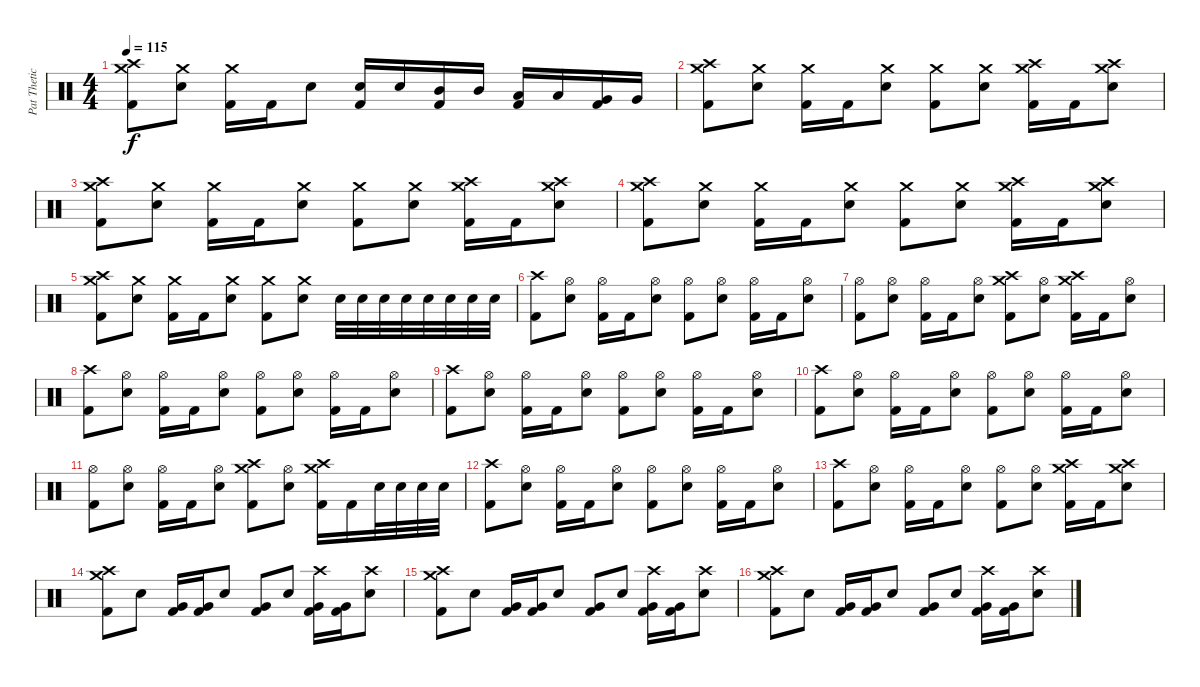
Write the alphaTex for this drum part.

\track ("Pat Thetic" "Pat Thetic") {instrument percussion}
\staff {score}
\articulation defaults
\ts (4 4)
\tempo 115
\clef neutral
\ks c
("Crash high (hit)" "Crash medium (hit)" "Kick (hit) 2").8{dy f} ("Crash medium (hit)" "Electric Snare (hit)").8 ("Crash medium (hit)" "Kick (hit) 2").16 "Kick (hit) 2".16 "Electric Snare (hit)".8 ("Electric Snare (hit)" "Kick (hit) 2").16 "Electric Snare (hit)".16 ("Mid Tom (hit)" "Kick (hit) 2").16 "Mid Tom (hit)".16 ("Low Tom (hit)" "Kick (hit) 2").16 "Low Tom (hit)".16 ("Very Low Tom (hit)" "Kick (hit) 2").16 "Very Low Tom (hit)".16 |
("Crash high (hit)" "Crash medium (hit)" "Kick (hit) 2").8 ("Crash medium (hit)" "Electric Snare (hit)").8 ("Crash medium (hit)" "Kick (hit) 2").16 "Kick (hit) 2".16 ("Crash medium (hit)" "Electric Snare (hit)").8 ("Crash medium (hit)" "Kick (hit) 2").8 ("Crash medium (hit)" "Electric Snare (hit)").8 ("Crash high (hit)" "Crash medium (hit)" "Kick (hit) 2").16 "Kick (hit) 2".16 ("Crash high (hit)" "Crash medium (hit)" "Electric Snare (hit)").8 |
("Crash high (hit)" "Crash medium (hit)" "Kick (hit) 2").8 ("Crash medium (hit)" "Electric Snare (hit)").8 ("Crash medium (hit)" "Kick (hit) 2").16 "Kick (hit) 2".16 ("Crash medium (hit)" "Electric Snare (hit)").8 ("Crash medium (hit)" "Kick (hit) 2").8 ("Crash medium (hit)" "Electric Snare (hit)").8 ("Crash high (hit)" "Crash medium (hit)" "Kick (hit) 2").16 "Kick (hit) 2".16 ("Crash high (hit)" "Crash medium (hit)" "Electric Snare (hit)").8 |
("Crash high (hit)" "Crash medium (hit)" "Kick (hit) 2").8 ("Crash medium (hit)" "Electric Snare (hit)").8 ("Crash medium (hit)" "Kick (hit) 2").16 "Kick (hit) 2".16 ("Crash medium (hit)" "Electric Snare (hit)").8 ("Crash medium (hit)" "Kick (hit) 2").8 ("Crash medium (hit)" "Electric Snare (hit)").8 ("Crash high (hit)" "Crash medium (hit)" "Kick (hit) 2").16 "Kick (hit) 2".16 ("Crash high (hit)" "Crash medium (hit)" "Electric Snare (hit)").8 |
("Crash high (hit)" "Crash medium (hit)" "Kick (hit) 2").8 ("Crash medium (hit)" "Electric Snare (hit)").8 ("Crash medium (hit)" "Kick (hit) 2").16 "Kick (hit) 2".16 ("Crash medium (hit)" "Electric Snare (hit)").8 ("Crash medium (hit)" "Kick (hit) 2").8 ("Crash medium (hit)" "Electric Snare (hit)").8 "Electric Snare (hit)".32 "Electric Snare (hit)".32 "Electric Snare (hit)".32 "Electric Snare (hit)".32 "Electric Snare (hit)".32 "Electric Snare (hit)".32 "Electric Snare (hit)".32 "Electric Snare (hit)".32 |
("Crash high (hit)" "Kick (hit) 2").8 ("Hi-Hat (open)" "Electric Snare (hit)").8 ("Hi-Hat (open)" "Kick (hit) 2").16 "Kick (hit) 2".16 ("Hi-Hat (open)" "Electric Snare (hit)").8 ("Hi-Hat (open)" "Kick (hit) 2").8 ("Hi-Hat (open)" "Electric Snare (hit)").8 ("Hi-Hat (open)" "Kick (hit) 2").16 "Kick (hit) 2".16 ("Hi-Hat (open)" "Electric Snare (hit)").8 |
("Hi-Hat (open)" "Kick (hit) 2").8 ("Hi-Hat (open)" "Electric Snare (hit)").8 ("Hi-Hat (open)" "Kick (hit) 2").16 "Kick (hit) 2".16 ("Hi-Hat (open)" "Electric Snare (hit)").8 ("Crash high (hit)" "Crash medium (hit)" "Kick (hit) 2").8 ("Hi-Hat (open)" "Electric Snare (hit)").8 ("Crash high (hit)" "Crash medium (hit)" "Kick (hit) 2").16 "Kick (hit) 2".16 ("Hi-Hat (open)" "Electric Snare (hit)").8 |
("Crash high (hit)" "Kick (hit) 2").8 ("Hi-Hat (open)" "Electric Snare (hit)").8 ("Hi-Hat (open)" "Kick (hit) 2").16 "Kick (hit) 2".16 ("Hi-Hat (open)" "Electric Snare (hit)").8 ("Hi-Hat (open)" "Kick (hit) 2").8 ("Hi-Hat (open)" "Electric Snare (hit)").8 ("Hi-Hat (open)" "Kick (hit) 2").16 "Kick (hit) 2".16 ("Hi-Hat (open)" "Electric Snare (hit)").8 |
("Crash high (hit)" "Kick (hit) 2").8 ("Hi-Hat (open)" "Electric Snare (hit)").8 ("Hi-Hat (open)" "Kick (hit) 2").16 "Kick (hit) 2".16 ("Hi-Hat (open)" "Electric Snare (hit)").8 ("Hi-Hat (open)" "Kick (hit) 2").8 ("Hi-Hat (open)" "Electric Snare (hit)").8 ("Hi-Hat (open)" "Kick (hit) 2").16 "Kick (hit) 2".16 ("Hi-Hat (open)" "Electric Snare (hit)").8 |
("Crash high (hit)" "Kick (hit) 2").8 ("Hi-Hat (open)" "Electric Snare (hit)").8 ("Hi-Hat (open)" "Kick (hit) 2").16 "Kick (hit) 2".16 ("Hi-Hat (open)" "Electric Snare (hit)").8 ("Hi-Hat (open)" "Kick (hit) 2").8 ("Hi-Hat (open)" "Electric Snare (hit)").8 ("Hi-Hat (open)" "Kick (hit) 2").16 "Kick (hit) 2".16 ("Hi-Hat (open)" "Electric Snare (hit)").8 |
("Hi-Hat (open)" "Kick (hit) 2").8 ("Hi-Hat (open)" "Electric Snare (hit)").8 ("Hi-Hat (open)" "Kick (hit) 2").16 "Kick (hit) 2".16 ("Hi-Hat (open)" "Electric Snare (hit)").8 ("Crash high (hit)" "Crash medium (hit)" "Kick (hit) 2").8 ("Hi-Hat (open)" "Electric Snare (hit)").8 ("Crash high (hit)" "Crash medium (hit)" "Kick (hit) 2").16 "Kick (hit) 2".16 "Electric Snare (hit)".32 "Electric Snare (hit)".32 "Electric Snare (hit)".32 "Electric Snare (hit)".32 |
("Crash high (hit)" "Kick (hit) 2").8 ("Hi-Hat (open)" "Electric Snare (hit)").8 ("Hi-Hat (open)" "Kick (hit) 2").16 "Kick (hit) 2".16 ("Hi-Hat (open)" "Electric Snare (hit)").8 ("Hi-Hat (open)" "Kick (hit) 2").8 ("Hi-Hat (open)" "Electric Snare (hit)").8 ("Hi-Hat (open)" "Kick (hit) 2").16 "Kick (hit) 2".16 ("Hi-Hat (open)" "Electric Snare (hit)").8 |
("Crash high (hit)" "Kick (hit) 2").8 ("Hi-Hat (open)" "Electric Snare (hit)").8 ("Hi-Hat (open)" "Kick (hit) 2").16 "Kick (hit) 2".16 ("Hi-Hat (open)" "Electric Snare (hit)").8 ("Hi-Hat (open)" "Kick (hit) 2").8 ("Hi-Hat (open)" "Electric Snare (hit)").8 ("Crash high (hit)" "Crash medium (hit)" "Kick (hit) 2").16 "Kick (hit) 2".16 ("Crash high (hit)" "Crash medium (hit)" "Electric Snare (hit)").8 |
("Crash high (hit)" "Crash medium (hit)" "Kick (hit) 2").8 "Electric Snare (hit)".8 ("Very Low Tom (hit)" "Kick (hit) 2").16 ("Very Low Tom (hit)" "Kick (hit) 2").16 "Electric Snare (hit)".8 ("Very Low Tom (hit)" "Kick (hit) 2").8 "Electric Snare (hit)".8 ("Crash high (hit)" "Very Low Tom (hit)" "Kick (hit) 2").16 ("Very Low Tom (hit)" "Kick (hit) 2").16 ("Crash high (hit)" "Electric Snare (hit)").8 |
("Crash high (hit)" "Crash medium (hit)" "Kick (hit) 2").8 "Electric Snare (hit)".8 ("Very Low Tom (hit)" "Kick (hit) 2").16 ("Very Low Tom (hit)" "Kick (hit) 2").16 "Electric Snare (hit)".8 ("Very Low Tom (hit)" "Kick (hit) 2").8 "Electric Snare (hit)".8 ("Crash high (hit)" "Very Low Tom (hit)" "Kick (hit) 2").16 ("Very Low Tom (hit)" "Kick (hit) 2").16 ("Crash high (hit)" "Electric Snare (hit)").8 |
("Crash high (hit)" "Crash medium (hit)" "Kick (hit) 2").8 "Electric Snare (hit)".8 ("Very Low Tom (hit)" "Kick (hit) 2").16 ("Very Low Tom (hit)" "Kick (hit) 2").16 "Electric Snare (hit)".8 ("Very Low Tom (hit)" "Kick (hit) 2").8 "Electric Snare (hit)".8 ("Crash high (hit)" "Very Low Tom (hit)" "Kick (hit) 2").16 ("Very Low Tom (hit)" "Kick (hit) 2").16 ("Crash high (hit)" "Electric Snare (hit)").8
